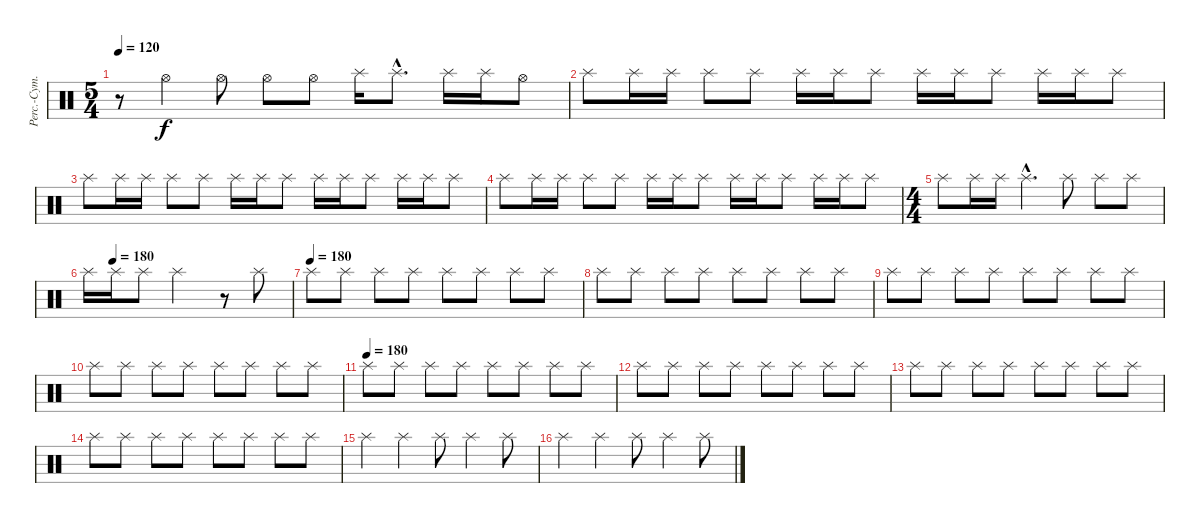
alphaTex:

\track ("Perc.-Cym. 2" "Perc.-Cym.") {instrument percussion}
\staff {score}
\articulation defaults
\ts (5 4)
\tempo 120
\clef neutral
\ks c
r.8{dy f} "Hi-Hat (open)".4 "Hi-Hat (open)".8 "Hi-Hat (open)".8 "Hi-Hat (open)".8 "Splash (hit)".16 "Splash (hit)"{hac}.8{d} "Splash (hit)".16 "Splash (hit)".16 "Hi-Hat (open)".8 |
"Splash (hit)".8 "Splash (hit)".16 "Splash (hit)".16 "Splash (hit)".8 "Splash (hit)".8 "Splash (hit)".16 "Splash (hit)".16 "Splash (hit)".8 "Splash (hit)".16 "Splash (hit)".16 "Splash (hit)".8 "Splash (hit)".16 "Splash (hit)".16 "Splash (hit)".8 |
"Splash (hit)".8 "Splash (hit)".16 "Splash (hit)".16 "Splash (hit)".8 "Splash (hit)".8 "Splash (hit)".16 "Splash (hit)".16 "Splash (hit)".8 "Splash (hit)".16 "Splash (hit)".16 "Splash (hit)".8 "Splash (hit)".16 "Splash (hit)".16 "Splash (hit)".8 |
"Splash (hit)".8 "Splash (hit)".16 "Splash (hit)".16 "Splash (hit)".8 "Splash (hit)".8 "Splash (hit)".16 "Splash (hit)".16 "Splash (hit)".8 "Splash (hit)".16 "Splash (hit)".16 "Splash (hit)".8 "Splash (hit)".16 "Splash (hit)".16 "Splash (hit)".8 |
\ts (4 4)
"Splash (hit)".8 "Splash (hit)".16 "Splash (hit)".16 "Splash (hit)"{hac}.4{d} "Splash (hit)".8 "Splash (hit)".8 "Splash (hit)".8 |
\tempo (180 0.125)
"Splash (hit)".16 "Splash (hit)".16 "Splash (hit)".8 "Splash (hit)".2 r.8 "Splash (hit)".8 |
\tempo (180)
"Splash (hit)".8 "Splash (hit)".8 "Splash (hit)".8 "Splash (hit)".8 "Splash (hit)".8 "Splash (hit)".8 "Splash (hit)".8 "Splash (hit)".8 |
"Splash (hit)".8 "Splash (hit)".8 "Splash (hit)".8 "Splash (hit)".8 "Splash (hit)".8 "Splash (hit)".8 "Splash (hit)".8 "Splash (hit)".8 |
"Splash (hit)".8 "Splash (hit)".8 "Splash (hit)".8 "Splash (hit)".8 "Splash (hit)".8 "Splash (hit)".8 "Splash (hit)".8 "Splash (hit)".8 |
"Splash (hit)".8 "Splash (hit)".8 "Splash (hit)".8 "Splash (hit)".8 "Splash (hit)".8 "Splash (hit)".8 "Splash (hit)".8 "Splash (hit)".8 |
\tempo (180)
"Splash (hit)".8 "Splash (hit)".8 "Splash (hit)".8 "Splash (hit)".8 "Splash (hit)".8 "Splash (hit)".8 "Splash (hit)".8 "Splash (hit)".8 |
"Splash (hit)".8 "Splash (hit)".8 "Splash (hit)".8 "Splash (hit)".8 "Splash (hit)".8 "Splash (hit)".8 "Splash (hit)".8 "Splash (hit)".8 |
"Splash (hit)".8 "Splash (hit)".8 "Splash (hit)".8 "Splash (hit)".8 "Splash (hit)".8 "Splash (hit)".8 "Splash (hit)".8 "Splash (hit)".8 |
"Splash (hit)".8 "Splash (hit)".8 "Splash (hit)".8 "Splash (hit)".8 "Splash (hit)".8 "Splash (hit)".8 "Splash (hit)".8 "Splash (hit)".8 |
"Splash (hit)".4 "Splash (hit)".4 "Splash (hit)".8 "Splash (hit)".4 "Splash (hit)".8 |
"Splash (hit)".4 "Splash (hit)".4 "Splash (hit)".8 "Splash (hit)".4 "Splash (hit)".8
